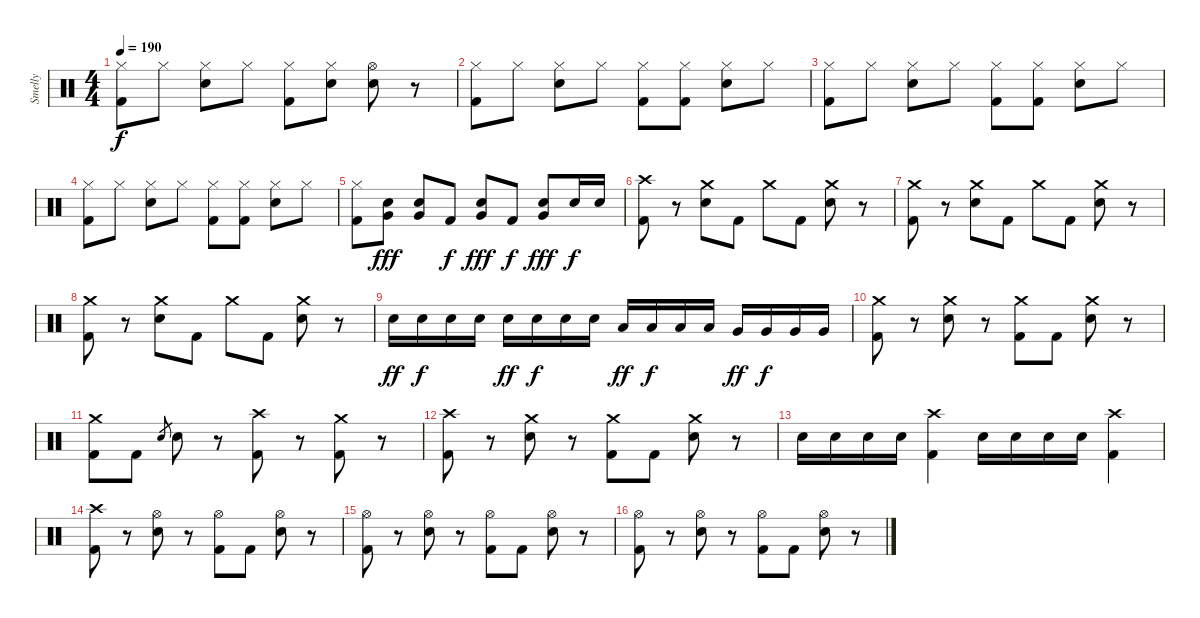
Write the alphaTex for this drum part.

\track ("Smelly" "Smelly") {instrument percussion}
\staff {score}
\articulation defaults
\ts (4 4)
\tempo 190
\clef neutral
\ks c
("Hi-Hat (closed)" "Kick (hit) 2").8{dy f} "Hi-Hat (closed)".8 ("Hi-Hat (closed)" "Electric Snare (hit)").8 "Hi-Hat (closed)".8 ("Hi-Hat (closed)" "Kick (hit) 2").8 ("Hi-Hat (closed)" "Electric Snare (hit)").8 ("Hi-Hat (open)" "Electric Snare (hit)").8 r.8 |
("Hi-Hat (closed)" "Kick (hit) 2").8 "Hi-Hat (closed)".8 ("Hi-Hat (closed)" "Electric Snare (hit)").8 "Hi-Hat (closed)".8 ("Hi-Hat (closed)" "Kick (hit) 2").8 ("Hi-Hat (closed)" "Kick (hit) 2").8 ("Hi-Hat (closed)" "Electric Snare (hit)").8 "Hi-Hat (closed)".8 |
("Hi-Hat (closed)" "Kick (hit) 2").8 "Hi-Hat (closed)".8 ("Hi-Hat (closed)" "Electric Snare (hit)").8 "Hi-Hat (closed)".8 ("Hi-Hat (closed)" "Kick (hit) 2").8 ("Hi-Hat (closed)" "Kick (hit) 2").8 ("Hi-Hat (closed)" "Electric Snare (hit)").8 "Hi-Hat (closed)".8 |
("Hi-Hat (closed)" "Kick (hit) 2").8 "Hi-Hat (closed)".8 ("Hi-Hat (closed)" "Electric Snare (hit)").8 "Hi-Hat (closed)".8 ("Hi-Hat (closed)" "Kick (hit) 2").8 ("Hi-Hat (closed)" "Kick (hit) 2").8 ("Hi-Hat (closed)" "Electric Snare (hit)").8 "Hi-Hat (closed)".8 |
("Hi-Hat (closed)" "Kick (hit) 2").8 ("Very Low Tom (hit)" "Electric Snare (hit)").8{dy fff} ("Very Low Tom (hit)" "Electric Snare (hit)").8 "Kick (hit) 2".8{dy f} ("Very Low Tom (hit)" "Electric Snare (hit)").8{dy fff} "Kick (hit) 2".8{dy f} ("Very Low Tom (hit)" "Electric Snare (hit)").8{dy fff} "Electric Snare (hit)".16{dy f} "Electric Snare (hit)".16 |
("Crash high (hit)" "Kick (hit) 2").8 r.8 ("Crash medium (hit)" "Electric Snare (hit)").8 "Kick (hit) 2".8 "Crash medium (hit)".8 "Kick (hit) 2".8 ("Crash medium (hit)" "Electric Snare (hit)").8 r.8 |
("Crash medium (hit)" "Kick (hit) 2").8 r.8 ("Crash medium (hit)" "Electric Snare (hit)").8 "Kick (hit) 2".8 "Crash medium (hit)".8 "Kick (hit) 2".8 ("Crash medium (hit)" "Electric Snare (hit)").8 r.8 |
("Crash medium (hit)" "Kick (hit) 2").8 r.8 ("Crash medium (hit)" "Electric Snare (hit)").8 "Kick (hit) 2".8 "Crash medium (hit)".8 "Kick (hit) 2".8 ("Crash medium (hit)" "Electric Snare (hit)").8 r.8 |
"Electric Snare (hit)".16{dy ff} "Electric Snare (hit)".16{dy f} "Electric Snare (hit)".16 "Electric Snare (hit)".16 "Electric Snare (hit)".16{dy ff} "Electric Snare (hit)".16{dy f} "Electric Snare (hit)".16 "Electric Snare (hit)".16 "Low Tom (hit)".16{dy ff} "Low Tom (hit)".16{dy f} "Low Tom (hit)".16 "Low Tom (hit)".16 "Very Low Tom (hit)".16{dy ff} "Very Low Tom (hit)".16{dy f} "Very Low Tom (hit)".16 "Very Low Tom (hit)".16 |
("Crash medium (hit)" "Kick (hit) 2").8 r.8 ("Crash medium (hit)" "Electric Snare (hit)").8 r.8 ("Crash medium (hit)" "Kick (hit) 2").8 "Kick (hit) 2".8 ("Crash medium (hit)" "Electric Snare (hit)").8 r.8 |
("Crash medium (hit)" "Kick (hit) 2").8 "Kick (hit) 2".8 "Electric Snare (hit)".8{gr} "Electric Snare (hit)".8 r.8 ("Crash high (hit)" "Kick (hit) 2").8 r.8 ("Crash medium (hit)" "Kick (hit) 2").8 r.8 |
("Crash high (hit)" "Kick (hit) 2").8 r.8 ("Crash medium (hit)" "Electric Snare (hit)").8 r.8 ("Crash medium (hit)" "Kick (hit) 2").8 "Kick (hit) 2".8 ("Crash medium (hit)" "Electric Snare (hit)").8 r.8 |
"Electric Snare (hit)".16 "Electric Snare (hit)".16 "Electric Snare (hit)".16 "Electric Snare (hit)".16 ("Crash high (hit)" "Kick (hit) 2").4 "Electric Snare (hit)".16 "Electric Snare (hit)".16 "Electric Snare (hit)".16 "Electric Snare (hit)".16 ("Crash high (hit)" "Kick (hit) 2").4 |
("Crash high (hit)" "Kick (hit) 2").8 r.8 ("Hi-Hat (open)" "Electric Snare (hit)").8 r.8 ("Hi-Hat (open)" "Kick (hit) 2").8 "Kick (hit) 2".8 ("Hi-Hat (open)" "Electric Snare (hit)").8 r.8 |
("Hi-Hat (open)" "Kick (hit) 2").8 r.8 ("Hi-Hat (open)" "Electric Snare (hit)").8 r.8 ("Hi-Hat (open)" "Kick (hit) 2").8 "Kick (hit) 2".8 ("Hi-Hat (open)" "Electric Snare (hit)").8 r.8 |
("Hi-Hat (open)" "Kick (hit) 2").8 r.8 ("Hi-Hat (open)" "Electric Snare (hit)").8 r.8 ("Hi-Hat (open)" "Kick (hit) 2").8 "Kick (hit) 2".8 ("Hi-Hat (open)" "Electric Snare (hit)").8 r.8
